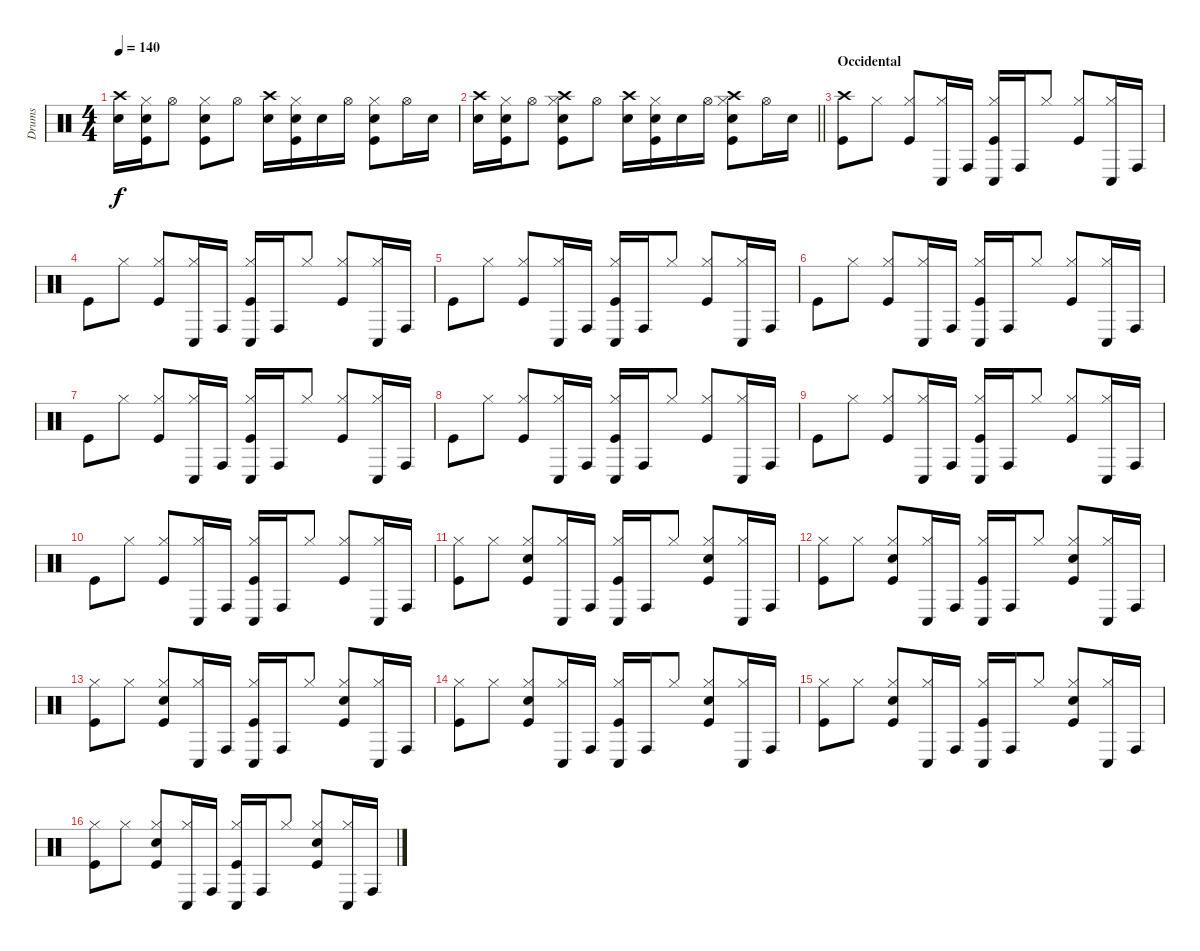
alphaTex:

\track ("Drums" "Drums") {instrument percussion}
\staff {score}
\articulation defaults
\ts (4 4)
\tempo 140
\clef neutral
\ks c
("Crash high (hit)" "Snare (hit) 2").16{dy f} ("Hi-Hat (closed)" "Snare (hit) 2" "Kick (hit)").16 "Hi-Hat (open)".8 ("Hi-Hat (closed)" "Snare (hit) 2" "Kick (hit)").8 "Hi-Hat (open)".8 ("Crash high (hit)" "Snare (hit) 2").16 ("Hi-Hat (closed)" "Snare (hit) 2" "Kick (hit)").16 "Snare (hit) 2".16 "Hi-Hat (open)".16 ("Hi-Hat (closed)" "Snare (hit) 2" "Kick (hit)").8 "Hi-Hat (open)".16 "Snare (hit) 2".16 |
\barLineRight lightlight
("Crash high (hit)" "Snare (hit) 2").16 ("Hi-Hat (closed)" "Snare (hit) 2" "Kick (hit)").16 "Hi-Hat (open)".8 ("Hi-Hat (closed)" "Crash high (hit)" "Snare (hit) 2" "Kick (hit)").8 "Hi-Hat (open)".8 ("Crash high (hit)" "Snare (hit) 2").16 ("Hi-Hat (closed)" "Snare (hit) 2" "Kick (hit)").16 "Snare (hit) 2".16 "Hi-Hat (open)".16 ("Hi-Hat (closed)" "Crash high (hit)" "Snare (hit) 2" "Kick (hit)").8 "Hi-Hat (open)".16 "Snare (hit) 2".16 |
\section ("" "Occidental")
("Crash high (hit)" "Kick (hit)").8 "Hi-Hat (closed)".8 ("Hi-Hat (closed)" "Kick (hit)").8 ("Hi-Hat (closed)" "Conga low (hit)").16 "Conga high (hit)".16 ("Hi-Hat (closed)" "Conga low (hit)" "Kick (hit)").16 "Conga high (hit)".16 "Hi-Hat (closed)".8 ("Hi-Hat (closed)" "Kick (hit)").8 ("Hi-Hat (closed)" "Conga low (hit)").16 "Conga high (hit)".16 |
"Kick (hit)".8 "Hi-Hat (closed)".8 ("Hi-Hat (closed)" "Kick (hit)").8 ("Hi-Hat (closed)" "Conga low (hit)").16 "Conga high (hit)".16 ("Hi-Hat (closed)" "Conga low (hit)" "Kick (hit)").16 "Conga high (hit)".16 "Hi-Hat (closed)".8 ("Hi-Hat (closed)" "Kick (hit)").8 ("Hi-Hat (closed)" "Conga low (hit)").16 "Conga high (hit)".16 |
"Kick (hit)".8 "Hi-Hat (closed)".8 ("Hi-Hat (closed)" "Kick (hit)").8 ("Hi-Hat (closed)" "Conga low (hit)").16 "Conga high (hit)".16 ("Hi-Hat (closed)" "Conga low (hit)" "Kick (hit)").16 "Conga high (hit)".16 "Hi-Hat (closed)".8 ("Hi-Hat (closed)" "Kick (hit)").8 ("Hi-Hat (closed)" "Conga low (hit)").16 "Conga high (hit)".16 |
"Kick (hit)".8 "Hi-Hat (closed)".8 ("Hi-Hat (closed)" "Kick (hit)").8 ("Hi-Hat (closed)" "Conga low (hit)").16 "Conga high (hit)".16 ("Hi-Hat (closed)" "Conga low (hit)" "Kick (hit)").16 "Conga high (hit)".16 "Hi-Hat (closed)".8 ("Hi-Hat (closed)" "Kick (hit)").8 ("Hi-Hat (closed)" "Conga low (hit)").16 "Conga high (hit)".16 |
"Kick (hit)".8 "Hi-Hat (closed)".8 ("Hi-Hat (closed)" "Kick (hit)").8 ("Hi-Hat (closed)" "Conga low (hit)").16 "Conga high (hit)".16 ("Hi-Hat (closed)" "Conga low (hit)" "Kick (hit)").16 "Conga high (hit)".16 "Hi-Hat (closed)".8 ("Hi-Hat (closed)" "Kick (hit)").8 ("Hi-Hat (closed)" "Conga low (hit)").16 "Conga high (hit)".16 |
"Kick (hit)".8 "Hi-Hat (closed)".8 ("Hi-Hat (closed)" "Kick (hit)").8 ("Hi-Hat (closed)" "Conga low (hit)").16 "Conga high (hit)".16 ("Hi-Hat (closed)" "Conga low (hit)" "Kick (hit)").16 "Conga high (hit)".16 "Hi-Hat (closed)".8 ("Hi-Hat (closed)" "Kick (hit)").8 ("Hi-Hat (closed)" "Conga low (hit)").16 "Conga high (hit)".16 |
"Kick (hit)".8 "Hi-Hat (closed)".8 ("Hi-Hat (closed)" "Kick (hit)").8 ("Hi-Hat (closed)" "Conga low (hit)").16 "Conga high (hit)".16 ("Hi-Hat (closed)" "Conga low (hit)" "Kick (hit)").16 "Conga high (hit)".16 "Hi-Hat (closed)".8 ("Hi-Hat (closed)" "Kick (hit)").8 ("Hi-Hat (closed)" "Conga low (hit)").16 "Conga high (hit)".16 |
"Kick (hit)".8 "Hi-Hat (closed)".8 ("Hi-Hat (closed)" "Kick (hit)").8 ("Hi-Hat (closed)" "Conga low (hit)").16 "Conga high (hit)".16 ("Hi-Hat (closed)" "Conga low (hit)" "Kick (hit)").16 "Conga high (hit)".16 "Hi-Hat (closed)".8 ("Hi-Hat (closed)" "Kick (hit)").8 ("Hi-Hat (closed)" "Conga low (hit)").16 "Conga high (hit)".16 |
("Hi-Hat (closed)" "Kick (hit)").8 "Hi-Hat (closed)".8 ("Hi-Hat (closed)" "Snare (hit) 2" "Kick (hit)").8 ("Hi-Hat (closed)" "Conga low (hit)").16 "Conga high (hit)".16 ("Hi-Hat (closed)" "Conga low (hit)" "Kick (hit)").16 "Conga high (hit)".16 "Hi-Hat (closed)".8 ("Hi-Hat (closed)" "Snare (hit) 2" "Kick (hit)").8 ("Hi-Hat (closed)" "Conga low (hit)").16 "Conga high (hit)".16 |
("Hi-Hat (closed)" "Kick (hit)").8 "Hi-Hat (closed)".8 ("Hi-Hat (closed)" "Snare (hit) 2" "Kick (hit)").8 ("Hi-Hat (closed)" "Conga low (hit)").16 "Conga high (hit)".16 ("Hi-Hat (closed)" "Conga low (hit)" "Kick (hit)").16 "Conga high (hit)".16 "Hi-Hat (closed)".8 ("Hi-Hat (closed)" "Snare (hit) 2" "Kick (hit)").8 ("Hi-Hat (closed)" "Conga low (hit)").16 "Conga high (hit)".16 |
("Hi-Hat (closed)" "Kick (hit)").8 "Hi-Hat (closed)".8 ("Hi-Hat (closed)" "Snare (hit) 2" "Kick (hit)").8 ("Hi-Hat (closed)" "Conga low (hit)").16 "Conga high (hit)".16 ("Hi-Hat (closed)" "Conga low (hit)" "Kick (hit)").16 "Conga high (hit)".16 "Hi-Hat (closed)".8 ("Hi-Hat (closed)" "Snare (hit) 2" "Kick (hit)").8 ("Hi-Hat (closed)" "Conga low (hit)").16 "Conga high (hit)".16 |
("Hi-Hat (closed)" "Kick (hit)").8 "Hi-Hat (closed)".8 ("Hi-Hat (closed)" "Snare (hit) 2" "Kick (hit)").8 ("Hi-Hat (closed)" "Conga low (hit)").16 "Conga high (hit)".16 ("Hi-Hat (closed)" "Conga low (hit)" "Kick (hit)").16 "Conga high (hit)".16 "Hi-Hat (closed)".8 ("Hi-Hat (closed)" "Snare (hit) 2" "Kick (hit)").8 ("Hi-Hat (closed)" "Conga low (hit)").16 "Conga high (hit)".16 |
("Hi-Hat (closed)" "Kick (hit)").8 "Hi-Hat (closed)".8 ("Hi-Hat (closed)" "Snare (hit) 2" "Kick (hit)").8 ("Hi-Hat (closed)" "Conga low (hit)").16 "Conga high (hit)".16 ("Hi-Hat (closed)" "Conga low (hit)" "Kick (hit)").16 "Conga high (hit)".16 "Hi-Hat (closed)".8 ("Hi-Hat (closed)" "Snare (hit) 2" "Kick (hit)").8 ("Hi-Hat (closed)" "Conga low (hit)").16 "Conga high (hit)".16 |
("Hi-Hat (closed)" "Kick (hit)").8 "Hi-Hat (closed)".8 ("Hi-Hat (closed)" "Snare (hit) 2" "Kick (hit)").8 ("Hi-Hat (closed)" "Conga low (hit)").16 "Conga high (hit)".16 ("Hi-Hat (closed)" "Conga low (hit)" "Kick (hit)").16 "Conga high (hit)".16 "Hi-Hat (closed)".8 ("Hi-Hat (closed)" "Snare (hit) 2" "Kick (hit)").8 ("Hi-Hat (closed)" "Conga low (hit)").16 "Conga high (hit)".16
